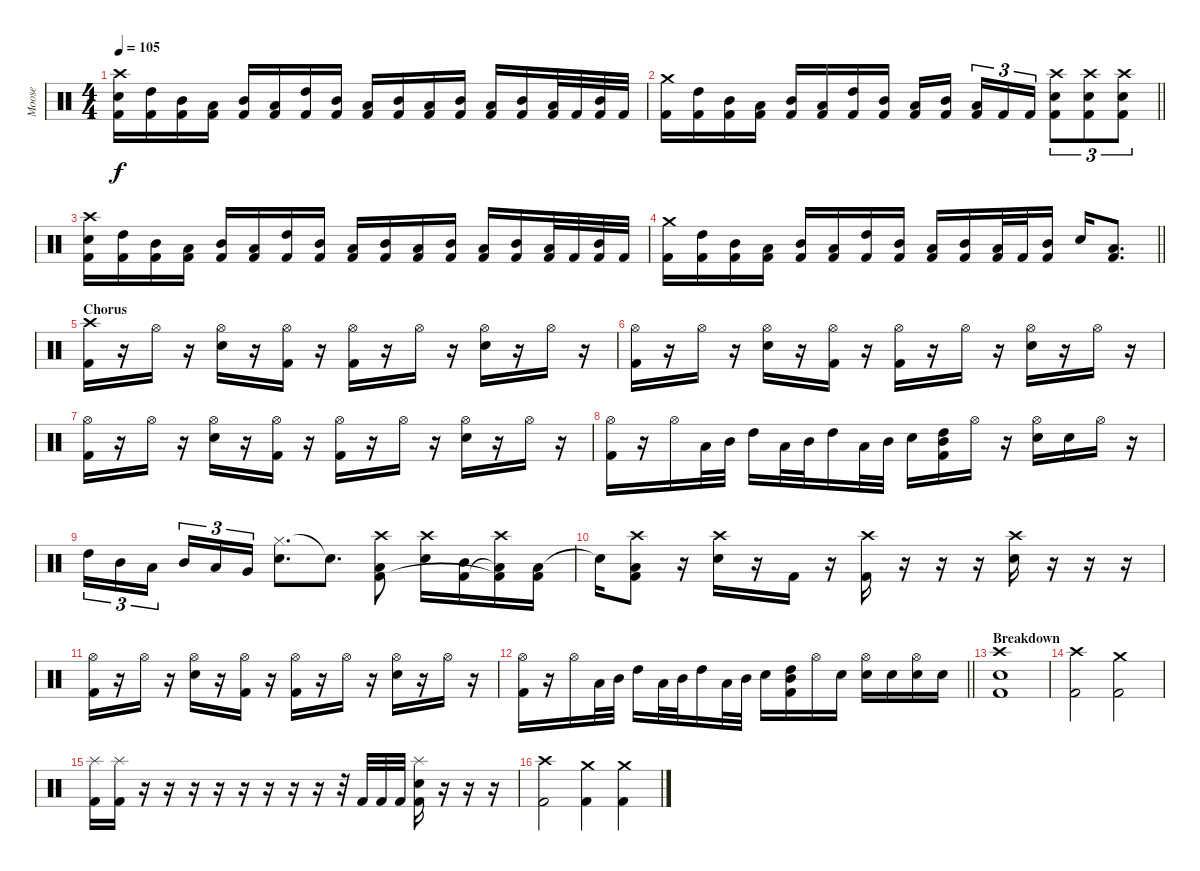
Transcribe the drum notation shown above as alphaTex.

\track ("Moose" "Moose") {instrument percussion}
\staff {score}
\articulation defaults
\ts (4 4)
\tempo 105
\clef neutral
\ks c
("Crash high (hit)" "Electric Snare (hit)" "Kick (hit) 2").16{dy f} ("High Tom (hit)" "Kick (hit) 2").16 ("Mid Tom (hit)" "Kick (hit) 2").16 ("Low Tom (hit)" "Kick (hit) 2").16 ("Mid Tom (hit)" "Kick (hit) 2").16 ("Low Tom (hit)" "Kick (hit) 2").16 ("High Tom (hit)" "Kick (hit) 2").16 ("Mid Tom (hit)" "Kick (hit) 2").16 ("Low Tom (hit)" "Kick (hit) 2").16 ("Mid Tom (hit)" "Kick (hit) 2").16 ("Low Tom (hit)" "Kick (hit) 2").16 ("Mid Tom (hit)" "Kick (hit) 2").16 ("Low Tom (hit)" "Kick (hit) 2").16 ("Mid Tom (hit)" "Kick (hit) 2").16 ("Low Tom (hit)" "Kick (hit) 2").32 "Kick (hit) 2".32 ("Mid Tom (hit)" "Kick (hit) 2").32 "Kick (hit) 2".32 |
\barLineRight lightlight
("Crash medium (hit)" "Kick (hit) 2").16 ("High Tom (hit)" "Kick (hit) 2").16 ("Mid Tom (hit)" "Kick (hit) 2").16 ("Low Tom (hit)" "Kick (hit) 2").16 ("Mid Tom (hit)" "Kick (hit) 2").16 ("Low Tom (hit)" "Kick (hit) 2").16 ("High Tom (hit)" "Kick (hit) 2").16 ("Mid Tom (hit)" "Kick (hit) 2").16 ("Low Tom (hit)" "Kick (hit) 2").16 ("Mid Tom (hit)" "Kick (hit) 2").16{beam splitsecondary} ("Low Tom (hit)" "Kick (hit) 2").16{tu (3 2)} "Kick (hit) 2".16{tu (3 2)} "Kick (hit) 2".16{tu (3 2)} ("Crash high (hit)" "Electric Snare (hit)" "Kick (hit) 2").8{tu (3 2)} ("Crash high (hit)" "Electric Snare (hit)" "Kick (hit) 2").8{tu (3 2)} ("Crash high (hit)" "Electric Snare (hit)" "Kick (hit) 2").8{tu (3 2)} |
("Crash high (hit)" "Electric Snare (hit)" "Kick (hit) 2").16 ("High Tom (hit)" "Kick (hit) 2").16 ("Mid Tom (hit)" "Kick (hit) 2").16 ("Low Tom (hit)" "Kick (hit) 2").16 ("Mid Tom (hit)" "Kick (hit) 2").16 ("Low Tom (hit)" "Kick (hit) 2").16 ("High Tom (hit)" "Kick (hit) 2").16 ("Mid Tom (hit)" "Kick (hit) 2").16 ("Low Tom (hit)" "Kick (hit) 2").16 ("Mid Tom (hit)" "Kick (hit) 2").16 ("Low Tom (hit)" "Kick (hit) 2").16 ("Mid Tom (hit)" "Kick (hit) 2").16 ("Low Tom (hit)" "Kick (hit) 2").16 ("Mid Tom (hit)" "Kick (hit) 2").16 ("Low Tom (hit)" "Kick (hit) 2").32 "Kick (hit) 2".32 ("Mid Tom (hit)" "Kick (hit) 2").32 "Kick (hit) 2".32 |
\barLineRight lightlight
("Crash medium (hit)" "Kick (hit) 2").16 ("High Tom (hit)" "Kick (hit) 2").16 ("Mid Tom (hit)" "Kick (hit) 2").16 ("Low Tom (hit)" "Kick (hit) 2").16 ("Mid Tom (hit)" "Kick (hit) 2").16 ("Low Tom (hit)" "Kick (hit) 2").16 ("High Tom (hit)" "Kick (hit) 2").16 ("Mid Tom (hit)" "Kick (hit) 2").16 ("Low Tom (hit)" "Kick (hit) 2").16 ("Mid Tom (hit)" "Kick (hit) 2").16 ("Low Tom (hit)" "Kick (hit) 2").32 "Kick (hit) 2".32 ("Mid Tom (hit)" "Kick (hit) 2").16 "Electric Snare (hit)".16 ("Low Tom (hit)" "Kick (hit) 2").8{d} |
\section ("" "Chorus")
("Crash high (hit)" "Kick (hit) 2").16 r.16 "Hi-Hat (open)".16 r.16 ("Hi-Hat (open)" "Electric Snare (hit)").16 r.16 ("Hi-Hat (open)" "Kick (hit) 2").16 r.16 ("Hi-Hat (open)" "Kick (hit) 2").16 r.16 "Hi-Hat (open)".16 r.16 ("Hi-Hat (open)" "Electric Snare (hit)").16 r.16 "Hi-Hat (open)".16 r.16 |
("Hi-Hat (open)" "Kick (hit) 2").16 r.16 "Hi-Hat (open)".16 r.16 ("Hi-Hat (open)" "Electric Snare (hit)").16 r.16 ("Hi-Hat (open)" "Kick (hit) 2").16 r.16 ("Hi-Hat (open)" "Kick (hit) 2").16 r.16 "Hi-Hat (open)".16 r.16 ("Hi-Hat (open)" "Electric Snare (hit)").16 r.16 "Hi-Hat (open)".16 r.16 |
("Hi-Hat (open)" "Kick (hit) 2").16 r.16 "Hi-Hat (open)".16 r.16 ("Hi-Hat (open)" "Electric Snare (hit)").16 r.16 ("Hi-Hat (open)" "Kick (hit) 2").16 r.16 ("Hi-Hat (open)" "Kick (hit) 2").16 r.16 "Hi-Hat (open)".16 r.16 ("Hi-Hat (open)" "Electric Snare (hit)").16 r.16 "Hi-Hat (open)".16 r.16 |
("Hi-Hat (open)" "Kick (hit) 2").16 r.16 "Hi-Hat (open)".16 "Low Tom (hit)".32 "Mid Tom (hit)".32 "High Tom (hit)".16 "Low Tom (hit)".32 "Mid Tom (hit)".32 "High Tom (hit)".16 "Low Tom (hit)".32 "Mid Tom (hit)".32 "Electric Snare (hit)".16 ("Mid Tom (hit)" "High Tom (hit)" "Kick (hit) 2").16 "Hi-Hat (open)".16 r.16 ("Hi-Hat (open)" "Electric Snare (hit)").16 "Electric Snare (hit)".16 "Hi-Hat (open)".16 r.16 |
"High Tom (hit)".16{tu (3 2)} "Mid Tom (hit)".16{tu (3 2)} "Low Tom (hit)".16{tu (3 2) beam splitsecondary} "Mid Tom (hit)".16{tu (3 2)} "Low Tom (hit)".16{tu (3 2)} "Very Low Tom (hit)".16{tu (3 2)} ("Hi-Hat (closed)" "Electric Snare (hit)").8{d} "Snare (hit)"{t}.8{d} ("Crash high (hit)" "Low Tom (hit)" "Kick (hit) 2").8 ("Crash high (hit)" "Electric Snare (hit)").16 ("Mid Tom (hit)" "Kick (hit) 2").16 ("Crash high (hit)" "Low Tom (hit)"{t} "Kick (hit) 2"{t}).16 ("Low Tom (hit)" "Kick (hit) 2").16 |
"Snare (hit)"{t}.16 ("Crash high (hit)" "Low Tom (hit)" "Kick (hit) 2").8 r.16 ("Crash high (hit)" "Electric Snare (hit)").16 r.16 "Kick (hit) 2".16 r.16 ("Crash high (hit)" "Kick (hit) 2").16 r.16 r.16 r.16 ("Crash high (hit)" "Electric Snare (hit)").16 r.16 r.16 r.16 |
("Hi-Hat (open)" "Kick (hit) 2").16 r.16 "Hi-Hat (open)".16 r.16 ("Hi-Hat (open)" "Electric Snare (hit)").16 r.16 ("Hi-Hat (open)" "Kick (hit) 2").16 r.16 ("Hi-Hat (open)" "Kick (hit) 2").16 r.16 "Hi-Hat (open)".16 r.16 ("Hi-Hat (open)" "Electric Snare (hit)").16 r.16 "Hi-Hat (open)".16 r.16 |
\barLineRight lightlight
("Hi-Hat (open)" "Kick (hit) 2").16 r.16 "Hi-Hat (open)".16 "Low Tom (hit)".32 "Mid Tom (hit)".32 "High Tom (hit)".16 "Low Tom (hit)".32 "Mid Tom (hit)".32 "High Tom (hit)".16 "Low Tom (hit)".32 "Mid Tom (hit)".32 "Electric Snare (hit)".16 ("Mid Tom (hit)" "High Tom (hit)" "Kick (hit) 2").16 "Hi-Hat (open)".16 "Electric Snare (hit)".16 ("Hi-Hat (open)" "Electric Snare (hit)").16 "Electric Snare (hit)".16 ("Hi-Hat (open)" "Electric Snare (hit)").16 "Electric Snare (hit)".16 |
\section ("" "Breakdown")
("Crash high (hit)" "Electric Snare (hit)" "Kick (hit) 2").1 |
("Crash high (hit)" "Kick (hit) 2").2 ("Crash medium (hit)" "Kick (hit) 2").2 |
("Splash (hit)" "Kick (hit) 2").16 ("Splash (hit)" "Kick (hit) 2").16 r.16 r.16 r.16 r.16 r.16 r.16 r.16 r.16 r.32 "Kick (hit) 2".32 "Kick (hit) 2".32 "Kick (hit) 2".32 ("Splash (hit)" "Electric Snare (hit)" "Kick (hit) 2").16 r.16 r.16 r.16 |
("Crash high (hit)" "Kick (hit) 2").2 ("Crash medium (hit)" "Kick (hit) 2").4 ("Crash medium (hit)" "Kick (hit) 2").4
